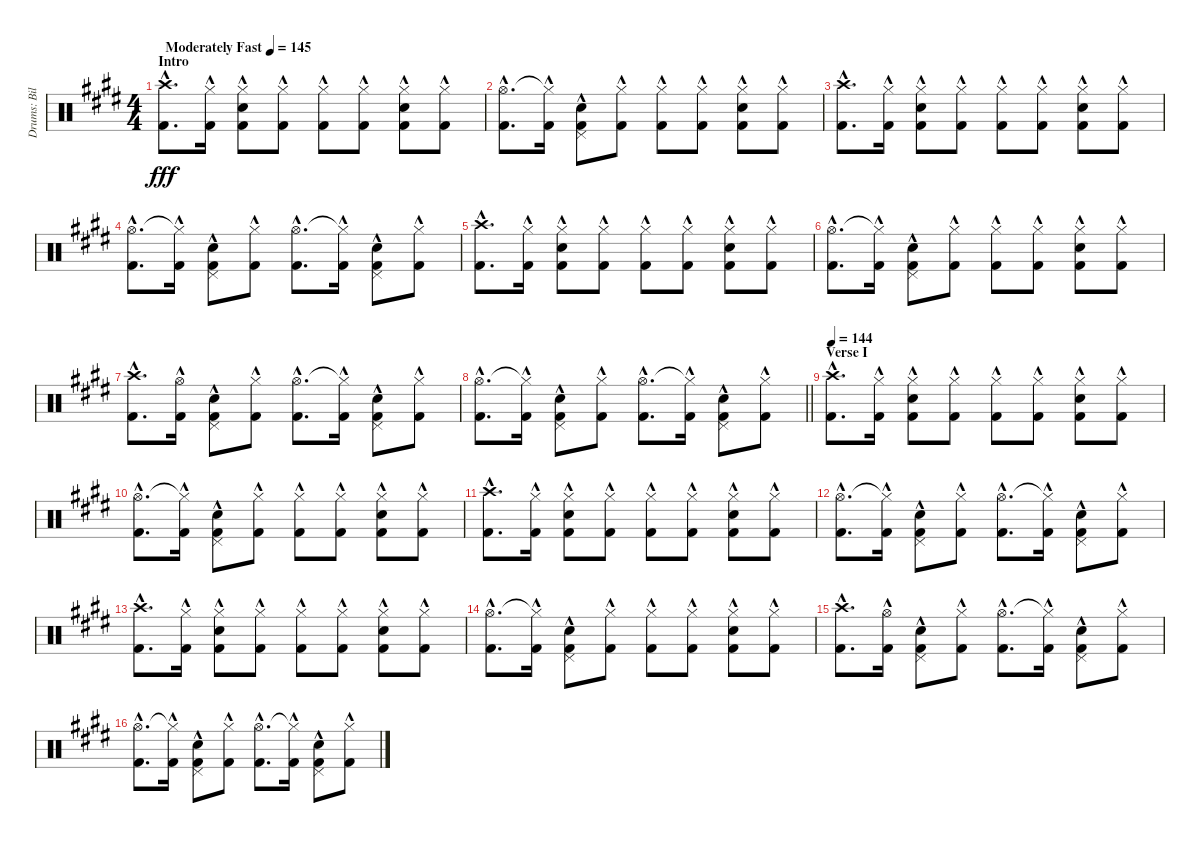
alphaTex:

\track ("Drums: Bill" "Drums: Bil") {instrument percussion}
\staff {score}
\articulation defaults
\ts (4 4)
\section ("" "Intro")
\tempo (145 "Moderately Fast")
\clef neutral
\ks e
("Crash high (hit)"{hac} "Kick (hit) 2"{hac}).8{d dy fff} ("Hi-Hat (closed)"{hac} "Kick (hit) 2"{hac}).16 ("Hi-Hat (closed)"{hac} "Snare (hit) 2"{hac} "Kick (hit) 2"{hac}).8 ("Hi-Hat (closed)"{hac} "Kick (hit) 2"{hac}).8 ("Hi-Hat (closed)"{hac} "Kick (hit) 2"{hac}).8 ("Hi-Hat (closed)"{hac} "Kick (hit) 2"{hac}).8 ("Hi-Hat (closed)"{hac} "Snare (hit) 2"{hac} "Kick (hit) 2"{hac}).8 ("Hi-Hat (closed)"{hac} "Kick (hit) 2"{hac}).8 |
("Hi-Hat (open)"{hac} "Kick (hit) 2"{hac}).8{d} ("Hi-Hat (closed)"{t} "Kick (hit) 2"{hac}).16 ("Pedal Hi-Hat (hit)"{hac} "Snare (hit) 2"{hac} "Kick (hit) 2"{hac}).8 ("Hi-Hat (closed)"{hac} "Kick (hit) 2"{hac}).8 ("Hi-Hat (closed)"{hac} "Kick (hit) 2"{hac}).8 ("Hi-Hat (closed)"{hac} "Kick (hit) 2"{hac}).8 ("Hi-Hat (closed)"{hac} "Snare (hit) 2"{hac} "Kick (hit) 2"{hac}).8 ("Hi-Hat (closed)"{hac} "Kick (hit) 2"{hac}).8 |
("Crash high (hit)"{hac} "Kick (hit) 2"{hac}).8{d} ("Hi-Hat (closed)"{hac} "Kick (hit) 2"{hac}).16 ("Hi-Hat (closed)"{hac} "Snare (hit) 2"{hac} "Kick (hit) 2"{hac}).8 ("Hi-Hat (closed)"{hac} "Kick (hit) 2"{hac}).8 ("Hi-Hat (closed)"{hac} "Kick (hit) 2"{hac}).8 ("Hi-Hat (closed)"{hac} "Kick (hit) 2"{hac}).8 ("Hi-Hat (closed)"{hac} "Snare (hit) 2"{hac} "Kick (hit) 2"{hac}).8 ("Hi-Hat (closed)"{hac} "Kick (hit) 2"{hac}).8 |
("Hi-Hat (open)"{hac} "Kick (hit) 2"{hac}).8{d} ("Hi-Hat (closed)"{t} "Kick (hit) 2"{hac}).16 ("Pedal Hi-Hat (hit)"{hac} "Snare (hit) 2"{hac} "Kick (hit) 2"{hac}).8 ("Hi-Hat (closed)"{hac} "Kick (hit) 2"{hac}).8 ("Hi-Hat (open)"{hac} "Kick (hit) 2"{hac}).8{d} ("Hi-Hat (closed)"{t} "Kick (hit) 2"{hac}).16 ("Pedal Hi-Hat (hit)"{hac} "Snare (hit) 2"{hac} "Kick (hit) 2"{hac}).8 ("Hi-Hat (closed)"{hac} "Kick (hit) 2"{hac}).8 |
("Crash high (hit)"{hac} "Kick (hit) 2"{hac}).8{d} ("Hi-Hat (closed)"{hac} "Kick (hit) 2"{hac}).16 ("Hi-Hat (closed)"{hac} "Snare (hit) 2"{hac} "Kick (hit) 2"{hac}).8 ("Hi-Hat (closed)"{hac} "Kick (hit) 2"{hac}).8 ("Hi-Hat (closed)"{hac} "Kick (hit) 2"{hac}).8 ("Hi-Hat (closed)"{hac} "Kick (hit) 2"{hac}).8 ("Hi-Hat (closed)"{hac} "Snare (hit) 2"{hac} "Kick (hit) 2"{hac}).8 ("Hi-Hat (closed)"{hac} "Kick (hit) 2"{hac}).8 |
("Hi-Hat (open)"{hac} "Kick (hit) 2"{hac}).8{d} ("Hi-Hat (closed)"{t} "Kick (hit) 2"{hac}).16 ("Pedal Hi-Hat (hit)"{hac} "Snare (hit) 2"{hac} "Kick (hit) 2"{hac}).8 ("Hi-Hat (closed)"{hac} "Kick (hit) 2"{hac}).8 ("Hi-Hat (closed)"{hac} "Kick (hit) 2"{hac}).8 ("Hi-Hat (closed)"{hac} "Kick (hit) 2"{hac}).8 ("Hi-Hat (closed)"{hac} "Snare (hit) 2"{hac} "Kick (hit) 2"{hac}).8 ("Hi-Hat (closed)"{hac} "Kick (hit) 2"{hac}).8 |
("Crash high (hit)"{hac} "Kick (hit) 2"{hac}).8{d} ("Hi-Hat (open)"{hac} "Kick (hit) 2"{hac}).16 ("Pedal Hi-Hat (hit)"{hac} "Snare (hit) 2"{hac} "Kick (hit) 2"{hac}).8 ("Hi-Hat (closed)"{hac} "Kick (hit) 2"{hac}).8 ("Hi-Hat (open)"{hac} "Kick (hit) 2"{hac}).8{d} ("Hi-Hat (closed)"{t} "Kick (hit) 2"{hac}).16 ("Pedal Hi-Hat (hit)"{hac} "Snare (hit) 2"{hac} "Kick (hit) 2"{hac}).8 ("Hi-Hat (closed)"{hac} "Kick (hit) 2"{hac}).8 |
\barLineRight lightlight
("Hi-Hat (open)"{hac} "Kick (hit) 2"{hac}).8{d} ("Hi-Hat (closed)"{t} "Kick (hit) 2"{hac}).16 ("Pedal Hi-Hat (hit)"{hac} "Snare (hit) 2"{hac} "Kick (hit) 2"{hac}).8 ("Hi-Hat (closed)"{hac} "Kick (hit) 2"{hac}).8 ("Hi-Hat (open)"{hac} "Kick (hit) 2"{hac}).8{d} ("Hi-Hat (closed)"{t} "Kick (hit) 2"{hac}).16 ("Pedal Hi-Hat (hit)"{hac} "Snare (hit) 2"{hac} "Kick (hit) 2"{hac}).8 ("Hi-Hat (closed)"{hac} "Kick (hit) 2"{hac}).8 |
\section ("" "Verse I")
\tempo 144
("Crash high (hit)"{hac} "Kick (hit) 2"{hac}).8{d} ("Hi-Hat (closed)"{hac} "Kick (hit) 2"{hac}).16 ("Hi-Hat (closed)"{hac} "Snare (hit) 2"{hac} "Kick (hit) 2"{hac}).8 ("Hi-Hat (closed)"{hac} "Kick (hit) 2"{hac}).8 ("Hi-Hat (closed)"{hac} "Kick (hit) 2"{hac}).8 ("Hi-Hat (closed)"{hac} "Kick (hit) 2"{hac}).8 ("Hi-Hat (closed)"{hac} "Snare (hit) 2"{hac} "Kick (hit) 2"{hac}).8 ("Hi-Hat (closed)"{hac} "Kick (hit) 2"{hac}).8 |
("Hi-Hat (open)"{hac} "Kick (hit) 2"{hac}).8{d} ("Hi-Hat (closed)"{t} "Kick (hit) 2"{hac}).16 ("Pedal Hi-Hat (hit)"{hac} "Snare (hit) 2"{hac} "Kick (hit) 2"{hac}).8 ("Hi-Hat (closed)"{hac} "Kick (hit) 2"{hac}).8 ("Hi-Hat (closed)"{hac} "Kick (hit) 2"{hac}).8 ("Hi-Hat (closed)"{hac} "Kick (hit) 2"{hac}).8 ("Hi-Hat (closed)"{hac} "Snare (hit) 2"{hac} "Kick (hit) 2"{hac}).8 ("Hi-Hat (closed)"{hac} "Kick (hit) 2"{hac}).8 |
("Crash high (hit)"{hac} "Kick (hit) 2"{hac}).8{d} ("Hi-Hat (closed)"{hac} "Kick (hit) 2"{hac}).16 ("Hi-Hat (closed)"{hac} "Snare (hit) 2"{hac} "Kick (hit) 2"{hac}).8 ("Hi-Hat (closed)"{hac} "Kick (hit) 2"{hac}).8 ("Hi-Hat (closed)"{hac} "Kick (hit) 2"{hac}).8 ("Hi-Hat (closed)"{hac} "Kick (hit) 2"{hac}).8 ("Hi-Hat (closed)"{hac} "Snare (hit) 2"{hac} "Kick (hit) 2"{hac}).8 ("Hi-Hat (closed)"{hac} "Kick (hit) 2"{hac}).8 |
("Hi-Hat (open)"{hac} "Kick (hit) 2"{hac}).8{d} ("Hi-Hat (closed)"{t} "Kick (hit) 2"{hac}).16 ("Pedal Hi-Hat (hit)"{hac} "Snare (hit) 2"{hac} "Kick (hit) 2"{hac}).8 ("Hi-Hat (closed)"{hac} "Kick (hit) 2"{hac}).8 ("Hi-Hat (open)"{hac} "Kick (hit) 2"{hac}).8{d} ("Hi-Hat (closed)"{t} "Kick (hit) 2"{hac}).16 ("Pedal Hi-Hat (hit)"{hac} "Snare (hit) 2"{hac} "Kick (hit) 2"{hac}).8 ("Hi-Hat (closed)"{hac} "Kick (hit) 2"{hac}).8 |
("Crash high (hit)"{hac} "Kick (hit) 2"{hac}).8{d} ("Hi-Hat (closed)"{hac} "Kick (hit) 2"{hac}).16 ("Hi-Hat (closed)"{hac} "Snare (hit) 2"{hac} "Kick (hit) 2"{hac}).8 ("Hi-Hat (closed)"{hac} "Kick (hit) 2"{hac}).8 ("Hi-Hat (closed)"{hac} "Kick (hit) 2"{hac}).8 ("Hi-Hat (closed)"{hac} "Kick (hit) 2"{hac}).8 ("Hi-Hat (closed)"{hac} "Snare (hit) 2"{hac} "Kick (hit) 2"{hac}).8 ("Hi-Hat (closed)"{hac} "Kick (hit) 2"{hac}).8 |
("Hi-Hat (open)"{hac} "Kick (hit) 2"{hac}).8{d} ("Hi-Hat (closed)"{t} "Kick (hit) 2"{hac}).16 ("Pedal Hi-Hat (hit)"{hac} "Snare (hit) 2"{hac} "Kick (hit) 2"{hac}).8 ("Hi-Hat (closed)"{hac} "Kick (hit) 2"{hac}).8 ("Hi-Hat (closed)"{hac} "Kick (hit) 2"{hac}).8 ("Hi-Hat (closed)"{hac} "Kick (hit) 2"{hac}).8 ("Hi-Hat (closed)"{hac} "Snare (hit) 2"{hac} "Kick (hit) 2"{hac}).8 ("Hi-Hat (closed)"{hac} "Kick (hit) 2"{hac}).8 |
("Crash high (hit)"{hac} "Kick (hit) 2"{hac}).8{d} ("Hi-Hat (open)"{hac} "Kick (hit) 2"{hac}).16 ("Pedal Hi-Hat (hit)"{hac} "Snare (hit) 2"{hac} "Kick (hit) 2"{hac}).8 ("Hi-Hat (closed)"{hac} "Kick (hit) 2"{hac}).8 ("Hi-Hat (open)"{hac} "Kick (hit) 2"{hac}).8{d} ("Hi-Hat (closed)"{t} "Kick (hit) 2"{hac}).16 ("Pedal Hi-Hat (hit)"{hac} "Snare (hit) 2"{hac} "Kick (hit) 2"{hac}).8 ("Hi-Hat (closed)"{hac} "Kick (hit) 2"{hac}).8 |
("Hi-Hat (open)"{hac} "Kick (hit) 2"{hac}).8{d} ("Hi-Hat (closed)"{t} "Kick (hit) 2"{hac}).16 ("Pedal Hi-Hat (hit)"{hac} "Snare (hit) 2"{hac} "Kick (hit) 2"{hac}).8 ("Hi-Hat (closed)"{hac} "Kick (hit) 2"{hac}).8 ("Hi-Hat (open)"{hac} "Kick (hit) 2"{hac}).8{d} ("Hi-Hat (closed)"{t} "Kick (hit) 2"{hac}).16 ("Pedal Hi-Hat (hit)"{hac} "Snare (hit) 2"{hac} "Kick (hit) 2"{hac}).8 ("Hi-Hat (closed)"{hac} "Kick (hit) 2"{hac}).8
